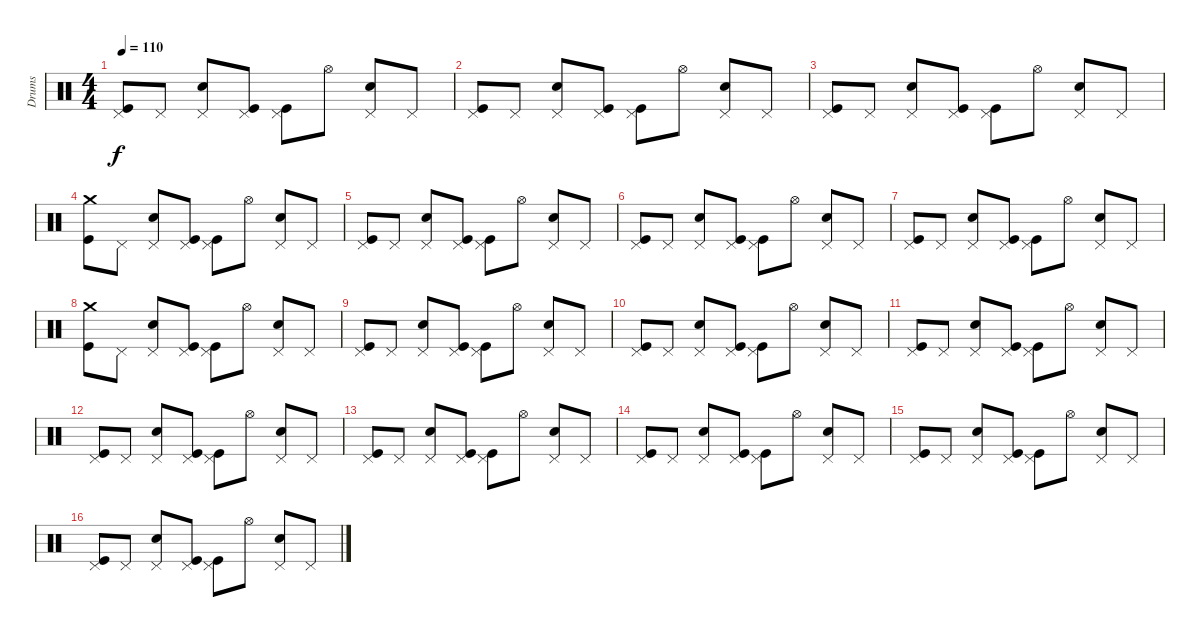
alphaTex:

\track ("Drums" "Drums") {instrument percussion}
\staff {score}
\articulation defaults
\ts (4 4)
\tempo 110
\clef neutral
\ks c
("Pedal Hi-Hat (hit)" "Kick (hit)").8{dy f} "Pedal Hi-Hat (hit)".8 ("Pedal Hi-Hat (hit)" "Snare (hit) 2").8 ("Pedal Hi-Hat (hit)" "Kick (hit)").8 ("Pedal Hi-Hat (hit)" "Kick (hit)").8 "Hi-Hat (open)".8 ("Pedal Hi-Hat (hit)" "Snare (hit) 2").8 "Pedal Hi-Hat (hit)".8 |
("Pedal Hi-Hat (hit)" "Kick (hit)").8 "Pedal Hi-Hat (hit)".8 ("Pedal Hi-Hat (hit)" "Snare (hit) 2").8 ("Pedal Hi-Hat (hit)" "Kick (hit)").8 ("Pedal Hi-Hat (hit)" "Kick (hit)").8 "Hi-Hat (open)".8 ("Pedal Hi-Hat (hit)" "Snare (hit) 2").8 "Pedal Hi-Hat (hit)".8 |
("Pedal Hi-Hat (hit)" "Kick (hit)").8 "Pedal Hi-Hat (hit)".8 ("Pedal Hi-Hat (hit)" "Snare (hit) 2").8 ("Pedal Hi-Hat (hit)" "Kick (hit)").8 ("Pedal Hi-Hat (hit)" "Kick (hit)").8 "Hi-Hat (open)".8 ("Pedal Hi-Hat (hit)" "Snare (hit) 2").8 "Pedal Hi-Hat (hit)".8 |
("Crash medium (hit)" "Kick (hit)").8 "Pedal Hi-Hat (hit)".8 ("Pedal Hi-Hat (hit)" "Snare (hit) 2").8 ("Pedal Hi-Hat (hit)" "Kick (hit)").8 ("Pedal Hi-Hat (hit)" "Kick (hit)").8 "Hi-Hat (open)".8 ("Pedal Hi-Hat (hit)" "Snare (hit) 2").8 "Pedal Hi-Hat (hit)".8 |
("Pedal Hi-Hat (hit)" "Kick (hit)").8 "Pedal Hi-Hat (hit)".8 ("Pedal Hi-Hat (hit)" "Snare (hit) 2").8 ("Pedal Hi-Hat (hit)" "Kick (hit)").8 ("Pedal Hi-Hat (hit)" "Kick (hit)").8 "Hi-Hat (open)".8 ("Pedal Hi-Hat (hit)" "Snare (hit) 2").8 "Pedal Hi-Hat (hit)".8 |
("Pedal Hi-Hat (hit)" "Kick (hit)").8 "Pedal Hi-Hat (hit)".8 ("Pedal Hi-Hat (hit)" "Snare (hit) 2").8 ("Pedal Hi-Hat (hit)" "Kick (hit)").8 ("Pedal Hi-Hat (hit)" "Kick (hit)").8 "Hi-Hat (open)".8 ("Pedal Hi-Hat (hit)" "Snare (hit) 2").8 "Pedal Hi-Hat (hit)".8 |
("Pedal Hi-Hat (hit)" "Kick (hit)").8 "Pedal Hi-Hat (hit)".8 ("Pedal Hi-Hat (hit)" "Snare (hit) 2").8 ("Pedal Hi-Hat (hit)" "Kick (hit)").8 ("Pedal Hi-Hat (hit)" "Kick (hit)").8 "Hi-Hat (open)".8 ("Pedal Hi-Hat (hit)" "Snare (hit) 2").8 "Pedal Hi-Hat (hit)".8 |
("Crash medium (hit)" "Kick (hit)").8 "Pedal Hi-Hat (hit)".8 ("Pedal Hi-Hat (hit)" "Snare (hit) 2").8 ("Pedal Hi-Hat (hit)" "Kick (hit)").8 ("Pedal Hi-Hat (hit)" "Kick (hit)").8 "Hi-Hat (open)".8 ("Pedal Hi-Hat (hit)" "Snare (hit) 2").8 "Pedal Hi-Hat (hit)".8 |
("Pedal Hi-Hat (hit)" "Kick (hit)").8 "Pedal Hi-Hat (hit)".8 ("Pedal Hi-Hat (hit)" "Snare (hit) 2").8 ("Pedal Hi-Hat (hit)" "Kick (hit)").8 ("Pedal Hi-Hat (hit)" "Kick (hit)").8 "Hi-Hat (open)".8 ("Pedal Hi-Hat (hit)" "Snare (hit) 2").8 "Pedal Hi-Hat (hit)".8 |
("Pedal Hi-Hat (hit)" "Kick (hit)").8 "Pedal Hi-Hat (hit)".8 ("Pedal Hi-Hat (hit)" "Snare (hit) 2").8 ("Pedal Hi-Hat (hit)" "Kick (hit)").8 ("Pedal Hi-Hat (hit)" "Kick (hit)").8 "Hi-Hat (open)".8 ("Pedal Hi-Hat (hit)" "Snare (hit) 2").8 "Pedal Hi-Hat (hit)".8 |
("Pedal Hi-Hat (hit)" "Kick (hit)").8 "Pedal Hi-Hat (hit)".8 ("Pedal Hi-Hat (hit)" "Snare (hit) 2").8 ("Pedal Hi-Hat (hit)" "Kick (hit)").8 ("Pedal Hi-Hat (hit)" "Kick (hit)").8 "Hi-Hat (open)".8 ("Pedal Hi-Hat (hit)" "Snare (hit) 2").8 "Pedal Hi-Hat (hit)".8 |
("Pedal Hi-Hat (hit)" "Kick (hit)").8 "Pedal Hi-Hat (hit)".8 ("Pedal Hi-Hat (hit)" "Snare (hit) 2").8 ("Pedal Hi-Hat (hit)" "Kick (hit)").8 ("Pedal Hi-Hat (hit)" "Kick (hit)").8 "Hi-Hat (open)".8 ("Pedal Hi-Hat (hit)" "Snare (hit) 2").8 "Pedal Hi-Hat (hit)".8 |
("Pedal Hi-Hat (hit)" "Kick (hit)").8 "Pedal Hi-Hat (hit)".8 ("Pedal Hi-Hat (hit)" "Snare (hit) 2").8 ("Pedal Hi-Hat (hit)" "Kick (hit)").8 ("Pedal Hi-Hat (hit)" "Kick (hit)").8 "Hi-Hat (open)".8 ("Pedal Hi-Hat (hit)" "Snare (hit) 2").8 "Pedal Hi-Hat (hit)".8 |
("Pedal Hi-Hat (hit)" "Kick (hit)").8 "Pedal Hi-Hat (hit)".8 ("Pedal Hi-Hat (hit)" "Snare (hit) 2").8 ("Pedal Hi-Hat (hit)" "Kick (hit)").8 ("Pedal Hi-Hat (hit)" "Kick (hit)").8 "Hi-Hat (open)".8 ("Pedal Hi-Hat (hit)" "Snare (hit) 2").8 "Pedal Hi-Hat (hit)".8 |
("Pedal Hi-Hat (hit)" "Kick (hit)").8 "Pedal Hi-Hat (hit)".8 ("Pedal Hi-Hat (hit)" "Snare (hit) 2").8 ("Pedal Hi-Hat (hit)" "Kick (hit)").8 ("Pedal Hi-Hat (hit)" "Kick (hit)").8 "Hi-Hat (open)".8 ("Pedal Hi-Hat (hit)" "Snare (hit) 2").8 "Pedal Hi-Hat (hit)".8 |
("Pedal Hi-Hat (hit)" "Kick (hit)").8{volume 6} "Pedal Hi-Hat (hit)".8 ("Pedal Hi-Hat (hit)" "Snare (hit) 2").8 ("Pedal Hi-Hat (hit)" "Kick (hit)").8 ("Pedal Hi-Hat (hit)" "Kick (hit)").8 "Hi-Hat (open)".8 ("Pedal Hi-Hat (hit)" "Snare (hit) 2").8 "Pedal Hi-Hat (hit)".8
